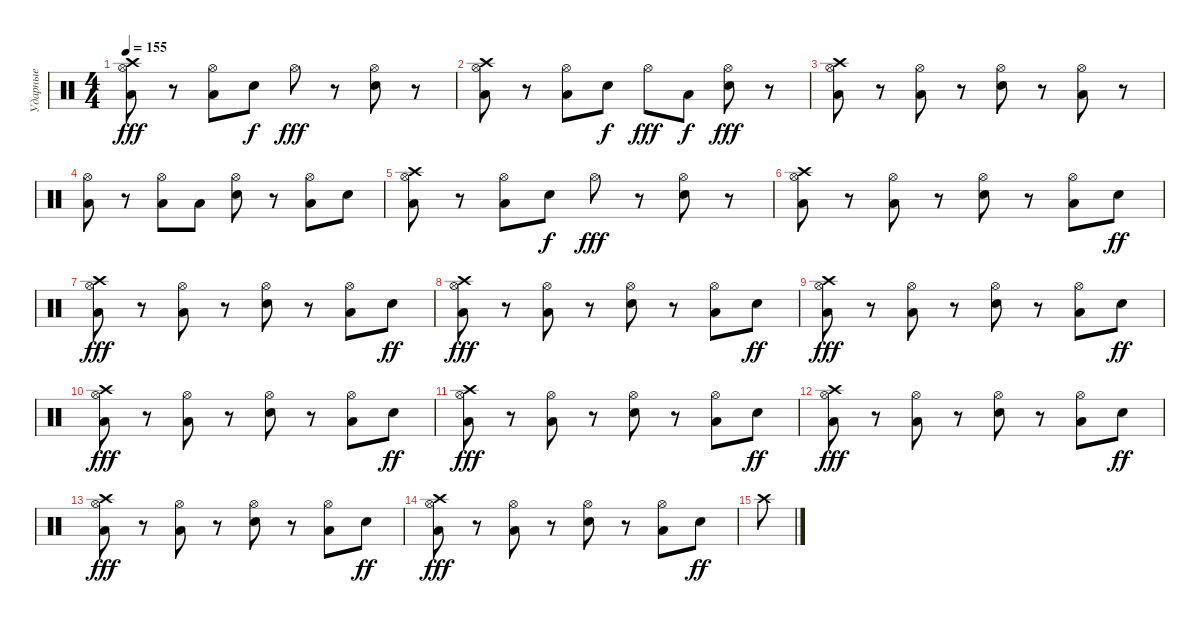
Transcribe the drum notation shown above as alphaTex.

\track ("Ударные" "Ударные") {instrument percussion}
\staff {score}
\articulation defaults
\ts (4 4)
\tempo 155
\clef neutral
\ks c
("Hi-Hat (open)" "Crash high (hit)" "Low Floor Tom (hit)").8{dy fff} r.8 ("Hi-Hat (open)" "Low Tom (hit)").8 "Snare (hit) 2".8{dy f} "Hi-Hat (open)".8{dy fff} r.8 ("Hi-Hat (open)" "Snare (hit) 2").8 r.8 |
("Hi-Hat (open)" "Crash high (hit)" "Low Floor Tom (hit)").8 r.8 ("Hi-Hat (open)" "Low Tom (hit)").8 "Snare (hit) 2".8{dy f} "Hi-Hat (open)".8{dy fff} "Low Tom (hit)".8{dy f} ("Hi-Hat (open)" "Snare (hit) 2").8{dy fff} r.8 |
("Hi-Hat (open)" "Crash high (hit)" "Low Floor Tom (hit)").8 r.8 ("Hi-Hat (open)" "Low Tom (hit)").8 r.8 ("Hi-Hat (open)" "Snare (hit) 2").8 r.8 ("Hi-Hat (open)" "Low Tom (hit)").8 r.8 |
("Hi-Hat (open)" "Low Floor Tom (hit)").8 r.8 ("Hi-Hat (open)" "Low Tom (hit)").8 "Low Floor Tom (hit)".8 ("Hi-Hat (open)" "Snare (hit) 2").8 r.8 ("Hi-Hat (open)" "Low Tom (hit)").8 "Snare (hit) 2".8 |
("Hi-Hat (open)" "Crash high (hit)" "Low Floor Tom (hit)").8 r.8 ("Hi-Hat (open)" "Low Tom (hit)").8 "Snare (hit) 2".8{dy f} "Hi-Hat (open)".8{dy fff} r.8 ("Hi-Hat (open)" "Snare (hit) 2").8 r.8 |
("Hi-Hat (open)" "Crash high (hit)" "Low Floor Tom (hit)").8 r.8 ("Hi-Hat (open)" "Low Tom (hit)").8 r.8 ("Hi-Hat (open)" "Snare (hit) 2").8 r.8 ("Hi-Hat (open)" "Low Tom (hit)").8 "Snare (hit) 2".8{dy ff} |
("Hi-Hat (open)" "Crash high (hit)" "Low Floor Tom (hit)").8{dy fff} r.8 ("Hi-Hat (open)" "Low Tom (hit)").8 r.8 ("Hi-Hat (open)" "Snare (hit) 2").8 r.8 ("Hi-Hat (open)" "Low Tom (hit)").8 "Snare (hit) 2".8{dy ff} |
("Hi-Hat (open)" "Crash high (hit)" "Low Floor Tom (hit)").8{dy fff} r.8 ("Hi-Hat (open)" "Low Tom (hit)").8 r.8 ("Hi-Hat (open)" "Snare (hit) 2").8 r.8 ("Hi-Hat (open)" "Low Tom (hit)").8 "Snare (hit) 2".8{dy ff} |
("Hi-Hat (open)" "Crash high (hit)" "Low Floor Tom (hit)").8{dy fff} r.8 ("Hi-Hat (open)" "Low Tom (hit)").8 r.8 ("Hi-Hat (open)" "Snare (hit) 2").8 r.8 ("Hi-Hat (open)" "Low Tom (hit)").8 "Snare (hit) 2".8{dy ff} |
("Hi-Hat (open)" "Crash high (hit)" "Low Floor Tom (hit)").8{dy fff} r.8 ("Hi-Hat (open)" "Low Tom (hit)").8 r.8 ("Hi-Hat (open)" "Snare (hit) 2").8 r.8 ("Hi-Hat (open)" "Low Tom (hit)").8 "Snare (hit) 2".8{dy ff} |
("Hi-Hat (open)" "Crash high (hit)" "Low Floor Tom (hit)").8{dy fff} r.8 ("Hi-Hat (open)" "Low Tom (hit)").8 r.8 ("Hi-Hat (open)" "Snare (hit) 2").8 r.8 ("Hi-Hat (open)" "Low Tom (hit)").8 "Snare (hit) 2".8{dy ff} |
("Hi-Hat (open)" "Crash high (hit)" "Low Floor Tom (hit)").8{dy fff} r.8 ("Hi-Hat (open)" "Low Tom (hit)").8 r.8 ("Hi-Hat (open)" "Snare (hit) 2").8 r.8 ("Hi-Hat (open)" "Low Tom (hit)").8 "Snare (hit) 2".8{dy ff} |
("Hi-Hat (open)" "Crash high (hit)" "Low Floor Tom (hit)").8{dy fff} r.8 ("Hi-Hat (open)" "Low Tom (hit)").8 r.8 ("Hi-Hat (open)" "Snare (hit) 2").8 r.8 ("Hi-Hat (open)" "Low Tom (hit)").8 "Snare (hit) 2".8{dy ff} |
("Hi-Hat (open)" "Crash high (hit)" "Low Floor Tom (hit)").8{dy fff} r.8 ("Hi-Hat (open)" "Low Tom (hit)").8 r.8 ("Hi-Hat (open)" "Snare (hit) 2").8 r.8 ("Hi-Hat (open)" "Low Tom (hit)").8 "Snare (hit) 2".8{dy ff} |
"Crash high (hit)".8
